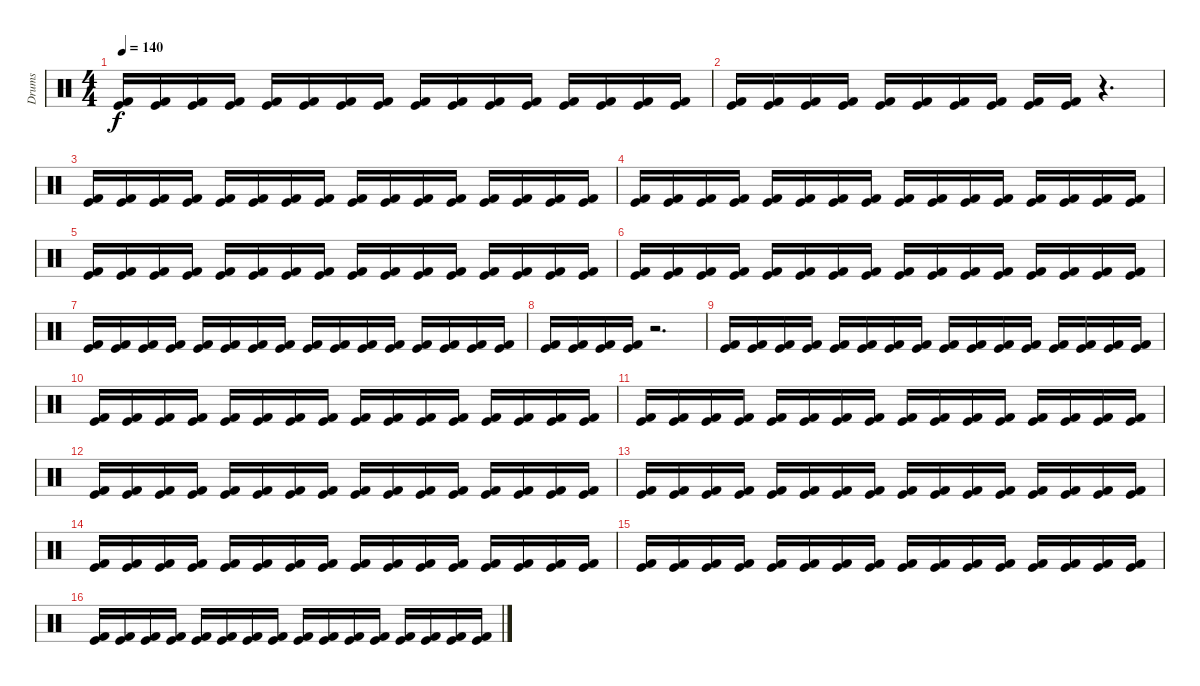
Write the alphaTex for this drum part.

\track ("Drums" "Drums") {instrument percussion}
\staff {score}
\articulation defaults
\ts (4 4)
\tempo 140
\clef neutral
\ks c
("Kick (hit) 2" "Kick (hit)").16{dy f} ("Kick (hit) 2" "Kick (hit)").16 ("Kick (hit) 2" "Kick (hit)").16 ("Kick (hit) 2" "Kick (hit)").16 ("Kick (hit) 2" "Kick (hit)").16 ("Kick (hit) 2" "Kick (hit)").16 ("Kick (hit) 2" "Kick (hit)").16 ("Kick (hit) 2" "Kick (hit)").16 ("Kick (hit) 2" "Kick (hit)").16 ("Kick (hit) 2" "Kick (hit)").16 ("Kick (hit) 2" "Kick (hit)").16 ("Kick (hit) 2" "Kick (hit)").16 ("Kick (hit) 2" "Kick (hit)").16 ("Kick (hit) 2" "Kick (hit)").16 ("Kick (hit) 2" "Kick (hit)").16 ("Kick (hit) 2" "Kick (hit)").16 |
("Kick (hit) 2" "Kick (hit)").16 ("Kick (hit) 2" "Kick (hit)").16 ("Kick (hit) 2" "Kick (hit)").16 ("Kick (hit) 2" "Kick (hit)").16 ("Kick (hit) 2" "Kick (hit)").16 ("Kick (hit) 2" "Kick (hit)").16 ("Kick (hit) 2" "Kick (hit)").16 ("Kick (hit) 2" "Kick (hit)").16 ("Kick (hit) 2" "Kick (hit)").16 ("Kick (hit) 2" "Kick (hit)").16 r.4{d} |
("Kick (hit) 2" "Kick (hit)").16 ("Kick (hit) 2" "Kick (hit)").16 ("Kick (hit) 2" "Kick (hit)").16 ("Kick (hit) 2" "Kick (hit)").16 ("Kick (hit) 2" "Kick (hit)").16 ("Kick (hit) 2" "Kick (hit)").16 ("Kick (hit) 2" "Kick (hit)").16 ("Kick (hit) 2" "Kick (hit)").16 ("Kick (hit) 2" "Kick (hit)").16 ("Kick (hit) 2" "Kick (hit)").16 ("Kick (hit) 2" "Kick (hit)").16 ("Kick (hit) 2" "Kick (hit)").16 ("Kick (hit) 2" "Kick (hit)").16 ("Kick (hit) 2" "Kick (hit)").16 ("Kick (hit) 2" "Kick (hit)").16 ("Kick (hit) 2" "Kick (hit)").16 |
("Kick (hit) 2" "Kick (hit)").16 ("Kick (hit) 2" "Kick (hit)").16 ("Kick (hit) 2" "Kick (hit)").16 ("Kick (hit) 2" "Kick (hit)").16 ("Kick (hit) 2" "Kick (hit)").16 ("Kick (hit) 2" "Kick (hit)").16 ("Kick (hit) 2" "Kick (hit)").16 ("Kick (hit) 2" "Kick (hit)").16 ("Kick (hit) 2" "Kick (hit)").16 ("Kick (hit) 2" "Kick (hit)").16 ("Kick (hit) 2" "Kick (hit)").16 ("Kick (hit) 2" "Kick (hit)").16 ("Kick (hit) 2" "Kick (hit)").16 ("Kick (hit) 2" "Kick (hit)").16 ("Kick (hit) 2" "Kick (hit)").16 ("Kick (hit) 2" "Kick (hit)").16 |
("Kick (hit) 2" "Kick (hit)").16 ("Kick (hit) 2" "Kick (hit)").16 ("Kick (hit) 2" "Kick (hit)").16 ("Kick (hit) 2" "Kick (hit)").16 ("Kick (hit) 2" "Kick (hit)").16 ("Kick (hit) 2" "Kick (hit)").16 ("Kick (hit) 2" "Kick (hit)").16 ("Kick (hit) 2" "Kick (hit)").16 ("Kick (hit) 2" "Kick (hit)").16 ("Kick (hit) 2" "Kick (hit)").16 ("Kick (hit) 2" "Kick (hit)").16 ("Kick (hit) 2" "Kick (hit)").16 ("Kick (hit) 2" "Kick (hit)").16 ("Kick (hit) 2" "Kick (hit)").16 ("Kick (hit) 2" "Kick (hit)").16 ("Kick (hit) 2" "Kick (hit)").16 |
("Kick (hit) 2" "Kick (hit)").16 ("Kick (hit) 2" "Kick (hit)").16 ("Kick (hit) 2" "Kick (hit)").16 ("Kick (hit) 2" "Kick (hit)").16 ("Kick (hit) 2" "Kick (hit)").16 ("Kick (hit) 2" "Kick (hit)").16 ("Kick (hit) 2" "Kick (hit)").16 ("Kick (hit) 2" "Kick (hit)").16 ("Kick (hit) 2" "Kick (hit)").16 ("Kick (hit) 2" "Kick (hit)").16 ("Kick (hit) 2" "Kick (hit)").16 ("Kick (hit) 2" "Kick (hit)").16 ("Kick (hit) 2" "Kick (hit)").16 ("Kick (hit) 2" "Kick (hit)").16 ("Kick (hit) 2" "Kick (hit)").16 ("Kick (hit) 2" "Kick (hit)").16 |
("Kick (hit) 2" "Kick (hit)").16 ("Kick (hit) 2" "Kick (hit)").16 ("Kick (hit) 2" "Kick (hit)").16 ("Kick (hit) 2" "Kick (hit)").16 ("Kick (hit) 2" "Kick (hit)").16 ("Kick (hit) 2" "Kick (hit)").16 ("Kick (hit) 2" "Kick (hit)").16 ("Kick (hit) 2" "Kick (hit)").16 ("Kick (hit) 2" "Kick (hit)").16 ("Kick (hit) 2" "Kick (hit)").16 ("Kick (hit) 2" "Kick (hit)").16 ("Kick (hit) 2" "Kick (hit)").16 ("Kick (hit) 2" "Kick (hit)").16 ("Kick (hit) 2" "Kick (hit)").16 ("Kick (hit) 2" "Kick (hit)").16 ("Kick (hit) 2" "Kick (hit)").16 |
("Kick (hit) 2" "Kick (hit)").16 ("Kick (hit) 2" "Kick (hit)").16 ("Kick (hit) 2" "Kick (hit)").16 ("Kick (hit) 2" "Kick (hit)").16 r.2{d} |
("Kick (hit) 2" "Kick (hit)").16 ("Kick (hit) 2" "Kick (hit)").16 ("Kick (hit) 2" "Kick (hit)").16 ("Kick (hit) 2" "Kick (hit)").16 ("Kick (hit) 2" "Kick (hit)").16 ("Kick (hit) 2" "Kick (hit)").16 ("Kick (hit) 2" "Kick (hit)").16 ("Kick (hit) 2" "Kick (hit)").16 ("Kick (hit) 2" "Kick (hit)").16 ("Kick (hit) 2" "Kick (hit)").16 ("Kick (hit) 2" "Kick (hit)").16 ("Kick (hit) 2" "Kick (hit)").16 ("Kick (hit) 2" "Kick (hit)").16 ("Kick (hit) 2" "Kick (hit)").16 ("Kick (hit) 2" "Kick (hit)").16 ("Kick (hit) 2" "Kick (hit)").16 |
("Kick (hit) 2" "Kick (hit)").16 ("Kick (hit) 2" "Kick (hit)").16 ("Kick (hit) 2" "Kick (hit)").16 ("Kick (hit) 2" "Kick (hit)").16 ("Kick (hit) 2" "Kick (hit)").16 ("Kick (hit) 2" "Kick (hit)").16 ("Kick (hit) 2" "Kick (hit)").16 ("Kick (hit) 2" "Kick (hit)").16 ("Kick (hit) 2" "Kick (hit)").16 ("Kick (hit) 2" "Kick (hit)").16 ("Kick (hit) 2" "Kick (hit)").16 ("Kick (hit) 2" "Kick (hit)").16 ("Kick (hit) 2" "Kick (hit)").16 ("Kick (hit) 2" "Kick (hit)").16 ("Kick (hit) 2" "Kick (hit)").16 ("Kick (hit) 2" "Kick (hit)").16 |
("Kick (hit) 2" "Kick (hit)").16 ("Kick (hit) 2" "Kick (hit)").16 ("Kick (hit) 2" "Kick (hit)").16 ("Kick (hit) 2" "Kick (hit)").16 ("Kick (hit) 2" "Kick (hit)").16 ("Kick (hit) 2" "Kick (hit)").16 ("Kick (hit) 2" "Kick (hit)").16 ("Kick (hit) 2" "Kick (hit)").16 ("Kick (hit) 2" "Kick (hit)").16 ("Kick (hit) 2" "Kick (hit)").16 ("Kick (hit) 2" "Kick (hit)").16 ("Kick (hit) 2" "Kick (hit)").16 ("Kick (hit) 2" "Kick (hit)").16 ("Kick (hit) 2" "Kick (hit)").16 ("Kick (hit) 2" "Kick (hit)").16 ("Kick (hit) 2" "Kick (hit)").16 |
("Kick (hit) 2" "Kick (hit)").16 ("Kick (hit) 2" "Kick (hit)").16 ("Kick (hit) 2" "Kick (hit)").16 ("Kick (hit) 2" "Kick (hit)").16 ("Kick (hit) 2" "Kick (hit)").16 ("Kick (hit) 2" "Kick (hit)").16 ("Kick (hit) 2" "Kick (hit)").16 ("Kick (hit) 2" "Kick (hit)").16 ("Kick (hit) 2" "Kick (hit)").16 ("Kick (hit) 2" "Kick (hit)").16 ("Kick (hit) 2" "Kick (hit)").16 ("Kick (hit) 2" "Kick (hit)").16 ("Kick (hit) 2" "Kick (hit)").16 ("Kick (hit) 2" "Kick (hit)").16 ("Kick (hit) 2" "Kick (hit)").16 ("Kick (hit) 2" "Kick (hit)").16 |
("Kick (hit) 2" "Kick (hit)").16 ("Kick (hit) 2" "Kick (hit)").16 ("Kick (hit) 2" "Kick (hit)").16 ("Kick (hit) 2" "Kick (hit)").16 ("Kick (hit) 2" "Kick (hit)").16 ("Kick (hit) 2" "Kick (hit)").16 ("Kick (hit) 2" "Kick (hit)").16 ("Kick (hit) 2" "Kick (hit)").16 ("Kick (hit) 2" "Kick (hit)").16 ("Kick (hit) 2" "Kick (hit)").16 ("Kick (hit) 2" "Kick (hit)").16 ("Kick (hit) 2" "Kick (hit)").16 ("Kick (hit) 2" "Kick (hit)").16 ("Kick (hit) 2" "Kick (hit)").16 ("Kick (hit) 2" "Kick (hit)").16 ("Kick (hit) 2" "Kick (hit)").16 |
("Kick (hit) 2" "Kick (hit)").16 ("Kick (hit) 2" "Kick (hit)").16 ("Kick (hit) 2" "Kick (hit)").16 ("Kick (hit) 2" "Kick (hit)").16 ("Kick (hit) 2" "Kick (hit)").16 ("Kick (hit) 2" "Kick (hit)").16 ("Kick (hit) 2" "Kick (hit)").16 ("Kick (hit) 2" "Kick (hit)").16 ("Kick (hit) 2" "Kick (hit)").16 ("Kick (hit) 2" "Kick (hit)").16 ("Kick (hit) 2" "Kick (hit)").16 ("Kick (hit) 2" "Kick (hit)").16 ("Kick (hit) 2" "Kick (hit)").16 ("Kick (hit) 2" "Kick (hit)").16 ("Kick (hit) 2" "Kick (hit)").16 ("Kick (hit) 2" "Kick (hit)").16 |
("Kick (hit) 2" "Kick (hit)").16 ("Kick (hit) 2" "Kick (hit)").16 ("Kick (hit) 2" "Kick (hit)").16 ("Kick (hit) 2" "Kick (hit)").16 ("Kick (hit) 2" "Kick (hit)").16 ("Kick (hit) 2" "Kick (hit)").16 ("Kick (hit) 2" "Kick (hit)").16 ("Kick (hit) 2" "Kick (hit)").16 ("Kick (hit) 2" "Kick (hit)").16 ("Kick (hit) 2" "Kick (hit)").16 ("Kick (hit) 2" "Kick (hit)").16 ("Kick (hit) 2" "Kick (hit)").16 ("Kick (hit) 2" "Kick (hit)").16 ("Kick (hit) 2" "Kick (hit)").16 ("Kick (hit) 2" "Kick (hit)").16 ("Kick (hit) 2" "Kick (hit)").16 |
("Kick (hit) 2" "Kick (hit)").16 ("Kick (hit) 2" "Kick (hit)").16 ("Kick (hit) 2" "Kick (hit)").16 ("Kick (hit) 2" "Kick (hit)").16 ("Kick (hit) 2" "Kick (hit)").16 ("Kick (hit) 2" "Kick (hit)").16 ("Kick (hit) 2" "Kick (hit)").16 ("Kick (hit) 2" "Kick (hit)").16 ("Kick (hit) 2" "Kick (hit)").16 ("Kick (hit) 2" "Kick (hit)").16 ("Kick (hit) 2" "Kick (hit)").16 ("Kick (hit) 2" "Kick (hit)").16 ("Kick (hit) 2" "Kick (hit)").16 ("Kick (hit) 2" "Kick (hit)").16 ("Kick (hit) 2" "Kick (hit)").16 ("Kick (hit) 2" "Kick (hit)").16
